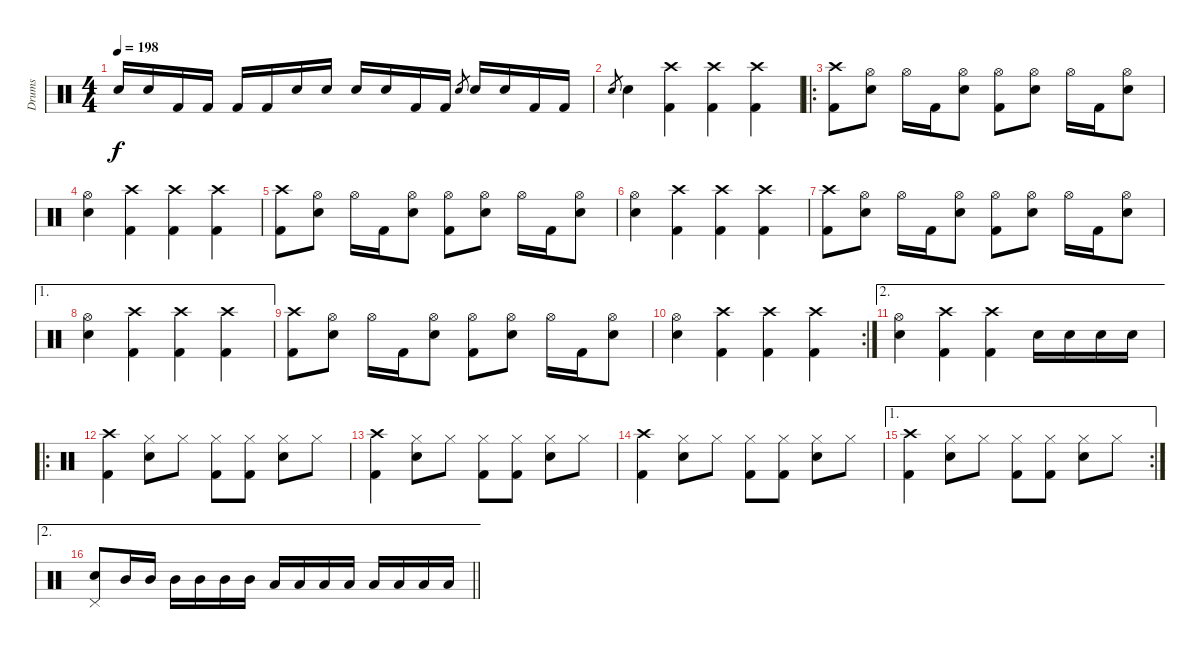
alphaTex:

\track ("Drums" "Drums") {instrument percussion}
\staff {score}
\articulation defaults
\ts (4 4)
\tempo 198
\clef neutral
\ks c "Snare (hit) 2".16{dy f} "Snare (hit) 2".16 "Kick (hit) 2".16 "Kick (hit) 2".16 "Kick (hit) 2".16 "Kick (hit) 2".16 "Snare (hit) 2".16 "Snare (hit) 2".16 "Snare (hit) 2".16 "Snare (hit) 2".16 "Kick (hit) 2".16 "Kick (hit) 2".16 "Snare (hit) 2".8{gr} "Snare (hit) 2".16 "Snare (hit) 2".16 "Kick (hit) 2".16 "Kick (hit) 2".16
|
"Snare (hit) 2".8{gr} "Snare (hit) 2".4 ("Crash high (hit)" "Kick (hit) 2").4 ("Crash high (hit)" "Kick (hit) 2").4 ("Crash high (hit)" "Kick (hit) 2").4 |
\ro
("Crash high (hit)" "Kick (hit) 2").8 ("Hi-Hat (open)" "Snare (hit) 2").8 "Hi-Hat (open)".16 "Kick (hit) 2".16 ("Hi-Hat (open)" "Snare (hit) 2").8 ("Hi-Hat (open)" "Kick (hit) 2").8 ("Hi-Hat (open)" "Snare (hit) 2").8 "Hi-Hat (open)".16 "Kick (hit) 2".16 ("Hi-Hat (open)" "Snare (hit) 2").8 |
("Hi-Hat (open)" "Snare (hit) 2").4 ("Crash high (hit)" "Kick (hit) 2").4 ("Crash high (hit)" "Kick (hit) 2").4 ("Crash high (hit)" "Kick (hit) 2").4 |
("Crash high (hit)" "Kick (hit) 2").8 ("Hi-Hat (open)" "Snare (hit) 2").8 "Hi-Hat (open)".16 "Kick (hit) 2".16 ("Hi-Hat (open)" "Snare (hit) 2").8 ("Hi-Hat (open)" "Kick (hit) 2").8 ("Hi-Hat (open)" "Snare (hit) 2").8 "Hi-Hat (open)".16 "Kick (hit) 2".16 ("Hi-Hat (open)" "Snare (hit) 2").8 |
("Hi-Hat (open)" "Snare (hit) 2").4 ("Crash high (hit)" "Kick (hit) 2").4 ("Crash high (hit)" "Kick (hit) 2").4 ("Crash high (hit)" "Kick (hit) 2").4 |
("Crash high (hit)" "Kick (hit) 2").8 ("Hi-Hat (open)" "Snare (hit) 2").8 "Hi-Hat (open)".16 "Kick (hit) 2".16 ("Hi-Hat (open)" "Snare (hit) 2").8 ("Hi-Hat (open)" "Kick (hit) 2").8 ("Hi-Hat (open)" "Snare (hit) 2").8 "Hi-Hat (open)".16 "Kick (hit) 2".16 ("Hi-Hat (open)" "Snare (hit) 2").8 |
\ae 1
("Hi-Hat (open)" "Snare (hit) 2").4 ("Crash high (hit)" "Kick (hit) 2").4 ("Crash high (hit)" "Kick (hit) 2").4 ("Crash high (hit)" "Kick (hit) 2").4 |
("Crash high (hit)" "Kick (hit) 2").8 ("Hi-Hat (open)" "Snare (hit) 2").8 "Hi-Hat (open)".16 "Kick (hit) 2".16 ("Hi-Hat (open)" "Snare (hit) 2").8 ("Hi-Hat (open)" "Kick (hit) 2").8 ("Hi-Hat (open)" "Snare (hit) 2").8 "Hi-Hat (open)".16 "Kick (hit) 2".16 ("Hi-Hat (open)" "Snare (hit) 2").8 |
\rc 2
("Hi-Hat (open)" "Snare (hit) 2").4 ("Crash high (hit)" "Kick (hit) 2").4 ("Crash high (hit)" "Kick (hit) 2").4 ("Crash high (hit)" "Kick (hit) 2").4 |
\ae 2
("Hi-Hat (open)" "Snare (hit) 2").4 ("Crash high (hit)" "Kick (hit) 2").4 ("Crash high (hit)" "Kick (hit) 2").4 "Snare (hit) 2".16 "Snare (hit) 2".16 "Snare (hit) 2".16 "Snare (hit) 2".16 |
\ro
("Crash high (hit)" "Kick (hit) 2").4 ("Hi-Hat (closed)" "Snare (hit) 2").8 "Hi-Hat (closed)".8 ("Hi-Hat (closed)" "Kick (hit) 2").8 ("Hi-Hat (closed)" "Kick (hit) 2").8 ("Hi-Hat (closed)" "Snare (hit) 2").8 "Hi-Hat (closed)".8 |
("Crash high (hit)" "Kick (hit) 2").4 ("Hi-Hat (closed)" "Snare (hit) 2").8 "Hi-Hat (closed)".8 ("Hi-Hat (closed)" "Kick (hit) 2").8 ("Hi-Hat (closed)" "Kick (hit) 2").8 ("Hi-Hat (closed)" "Snare (hit) 2").8 "Hi-Hat (closed)".8 |
("Crash high (hit)" "Kick (hit) 2").4 ("Hi-Hat (closed)" "Snare (hit) 2").8 "Hi-Hat (closed)".8 ("Hi-Hat (closed)" "Kick (hit) 2").8 ("Hi-Hat (closed)" "Kick (hit) 2").8 ("Hi-Hat (closed)" "Snare (hit) 2").8 "Hi-Hat (closed)".8 |
\ae 1
\rc 2
("Crash high (hit)" "Kick (hit) 2").4 ("Hi-Hat (closed)" "Snare (hit) 2").8 "Hi-Hat (closed)".8 ("Hi-Hat (closed)" "Kick (hit) 2").8 ("Hi-Hat (closed)" "Kick (hit) 2").8 ("Hi-Hat (closed)" "Snare (hit) 2").8 "Hi-Hat (closed)".8 |
\ae 2
\barLineRight lightlight
("Pedal Hi-Hat (hit)" "Snare (hit) 2").8 "Mid Tom (hit)".16 "Mid Tom (hit)".16 "Mid Tom (hit)".16 "Mid Tom (hit)".16 "Mid Tom (hit)".16 "Mid Tom (hit)".16 "Low Tom (hit)".16 "Low Tom (hit)".16 "Low Tom (hit)".16 "Low Tom (hit)".16 "Low Floor Tom (hit)".16 "Low Floor Tom (hit)".16 "Low Floor Tom (hit)".16 "Low Floor Tom (hit)".16
